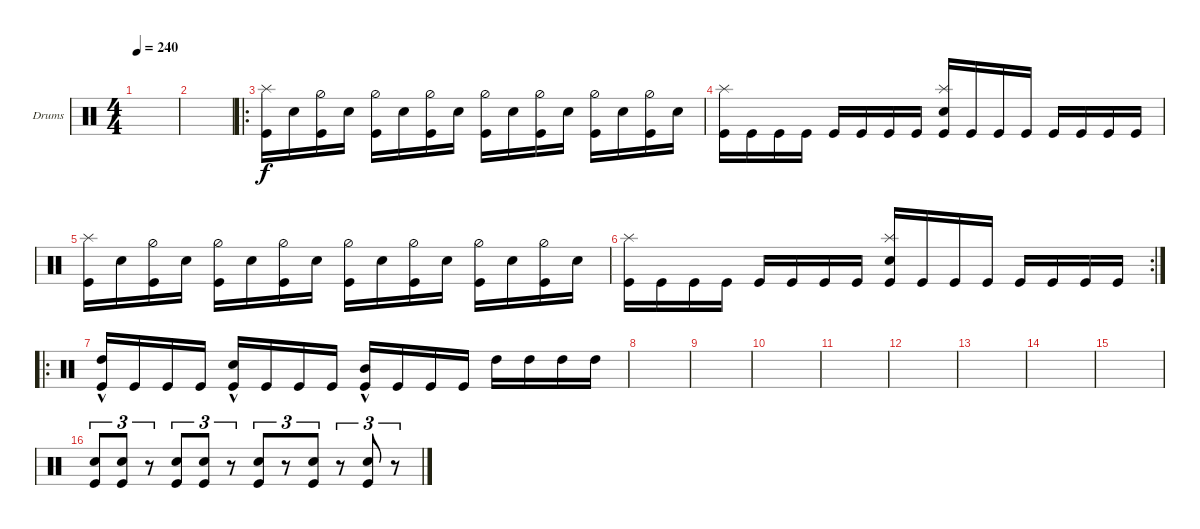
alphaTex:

\defaultSystemsLayout 4
\bracketExtendMode groupsimilarinstruments
\firstSystemTrackNameOrientation horizontal
\otherSystemsTrackNameOrientation horizontal
\track ("Drumkit" "Drums") {instrument percussion}
\staff {score}
\articulation defaults
\ts (4 4)
\tempo 240
\clef neutral
\ks c
|
|
\ro
("Kick (hit)" "Splash (hit)").16 "Snare (hit) 2".16 ("Hi-Hat (half)" "Kick (hit)").16 "Snare (hit) 2".16 ("Hi-Hat (half)" "Kick (hit)").16 "Snare (hit) 2".16 ("Hi-Hat (half)" "Kick (hit)").16 "Snare (hit) 2".16 ("Hi-Hat (half)" "Kick (hit)").16 "Snare (hit) 2".16 ("Hi-Hat (half)" "Kick (hit)").16 "Snare (hit) 2".16 ("Hi-Hat (half)" "Kick (hit)").16 "Snare (hit) 2".16 ("Hi-Hat (half)" "Kick (hit)").16 "Snare (hit) 2".16 |
("Kick (hit)" "Splash (hit)").16 "Kick (hit)".16 "Kick (hit)".16 "Kick (hit)".16 "Kick (hit)".16 "Kick (hit)".16 "Kick (hit)".16 "Kick (hit)".16 ("Kick (hit)" "Splash (hit)" "Snare (hit) 2").16 "Kick (hit)".16 "Kick (hit)".16 "Kick (hit)".16 "Kick (hit)".16 "Kick (hit)".16 "Kick (hit)".16 "Kick (hit)".16 |
("Kick (hit)" "Splash (hit)").16 "Snare (hit) 2".16 ("Hi-Hat (half)" "Kick (hit)").16 "Snare (hit) 2".16 ("Hi-Hat (half)" "Kick (hit)").16 "Snare (hit) 2".16 ("Hi-Hat (half)" "Kick (hit)").16 "Snare (hit) 2".16 ("Hi-Hat (half)" "Kick (hit)").16 "Snare (hit) 2".16 ("Hi-Hat (half)" "Kick (hit)").16 "Snare (hit) 2".16 ("Hi-Hat (half)" "Kick (hit)").16 "Snare (hit) 2".16 ("Hi-Hat (half)" "Kick (hit)").16 "Snare (hit) 2".16 |
\rc 2
("Kick (hit)" "Splash (hit)").16 "Kick (hit)".16 "Kick (hit)".16 "Kick (hit)".16 "Kick (hit)".16 "Kick (hit)".16 "Kick (hit)".16 "Kick (hit)".16 ("Kick (hit)" "Splash (hit)" "Snare (hit) 2").16 "Kick (hit)".16 "Kick (hit)".16 "Kick (hit)".16 "Kick (hit)".16 "Kick (hit)".16 "Kick (hit)".16 "Kick (hit)".16 |
\ro
("Kick (hit)" "High Tom (hit)"{hac}).16 "Kick (hit)".16 "Kick (hit)".16 "Kick (hit)".16 ("Kick (hit)" "Snare (hit) 2"{hac}).16 "Kick (hit)".16 "Kick (hit)".16 "Kick (hit)".16 ("Kick (hit)" "Mid Tom (hit)"{hac}).16 "Kick (hit)".16 "Kick (hit)".16 "Kick (hit)".16 "High Tom (hit)".16 "High Tom (hit)".16 "High Tom (hit)".16 "High Tom (hit)".16 |
|
|
|
|
|
|
|
|
("Snare (hit) 2" "Kick (hit)").8{tu (3 2)} ("Snare (hit) 2" "Kick (hit)").8{tu (3 2)} r.8{tu (3 2)} ("Snare (hit) 2" "Kick (hit)").8{tu (3 2)} ("Snare (hit) 2" "Kick (hit)").8{tu (3 2)} r.8{tu (3 2)} ("Snare (hit) 2" "Kick (hit)").8{tu (3 2)} r.8{tu (3 2)} ("Snare (hit) 2" "Kick (hit)").8{tu (3 2)} r.8{tu (3 2)} ("Snare (hit) 2" "Kick (hit)").8{tu (3 2)} r.8{tu (3 2)}
